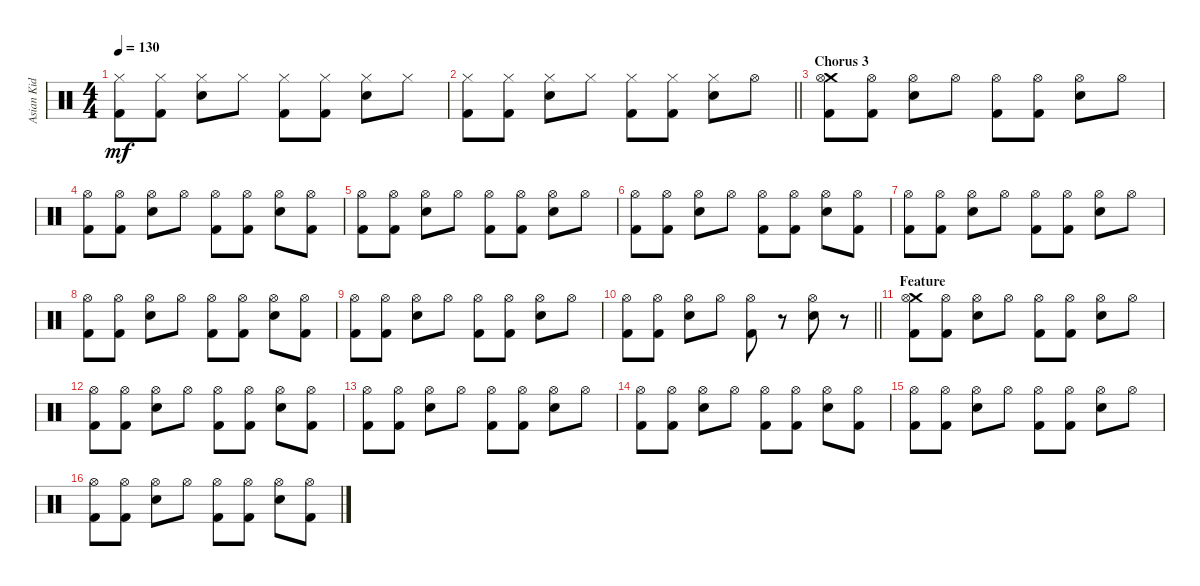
\track ("Asian Kid" "Asian Kid") {instrument percussion}
\staff {score}
\articulation defaults
\ts (4 4)
\tempo 130
\clef neutral
\ks c
("Hi-Hat (closed)" "Kick (hit) 2").8{dy mf} ("Hi-Hat (closed)" "Kick (hit) 2").8 ("Hi-Hat (closed)" "Electric Snare (hit)").8 "Hi-Hat (closed)".8 ("Hi-Hat (closed)" "Kick (hit) 2").8 ("Hi-Hat (closed)" "Kick (hit) 2").8 ("Hi-Hat (closed)" "Electric Snare (hit)").8 "Hi-Hat (closed)".8 |
\barLineRight lightlight
("Hi-Hat (closed)" "Kick (hit) 2").8 ("Hi-Hat (closed)" "Kick (hit) 2").8 ("Hi-Hat (closed)" "Electric Snare (hit)").8 "Hi-Hat (closed)".8 ("Hi-Hat (closed)" "Kick (hit) 2").8 ("Hi-Hat (closed)" "Kick (hit) 2").8 ("Hi-Hat (closed)" "Electric Snare (hit)").8 "Hi-Hat (open)".8 |
\section ("" "Chorus 3")
("Crash medium (hit)" "Hi-Hat (open)" "Kick (hit) 2").8 ("Hi-Hat (open)" "Kick (hit) 2").8 ("Hi-Hat (open)" "Electric Snare (hit)").8 "Hi-Hat (open)".8 ("Hi-Hat (open)" "Kick (hit) 2").8 ("Hi-Hat (open)" "Kick (hit) 2").8 ("Hi-Hat (open)" "Electric Snare (hit)").8 "Hi-Hat (open)".8 |
("Hi-Hat (open)" "Kick (hit) 2").8 ("Hi-Hat (open)" "Kick (hit) 2").8 ("Hi-Hat (open)" "Electric Snare (hit)").8 "Hi-Hat (open)".8 ("Hi-Hat (open)" "Kick (hit) 2").8 ("Hi-Hat (open)" "Kick (hit) 2").8 ("Hi-Hat (open)" "Electric Snare (hit)").8 ("Hi-Hat (open)" "Kick (hit) 2").8 |
("Hi-Hat (open)" "Kick (hit) 2").8 ("Hi-Hat (open)" "Kick (hit) 2").8 ("Hi-Hat (open)" "Electric Snare (hit)").8 "Hi-Hat (open)".8 ("Hi-Hat (open)" "Kick (hit) 2").8 ("Hi-Hat (open)" "Kick (hit) 2").8 ("Hi-Hat (open)" "Electric Snare (hit)").8 "Hi-Hat (open)".8 |
("Hi-Hat (open)" "Kick (hit) 2").8 ("Hi-Hat (open)" "Kick (hit) 2").8 ("Hi-Hat (open)" "Electric Snare (hit)").8 "Hi-Hat (open)".8 ("Hi-Hat (open)" "Kick (hit) 2").8 ("Hi-Hat (open)" "Kick (hit) 2").8 ("Hi-Hat (open)" "Electric Snare (hit)").8 ("Hi-Hat (open)" "Kick (hit) 2").8 |
("Hi-Hat (open)" "Kick (hit) 2").8 ("Hi-Hat (open)" "Kick (hit) 2").8 ("Hi-Hat (open)" "Electric Snare (hit)").8 "Hi-Hat (open)".8 ("Hi-Hat (open)" "Kick (hit) 2").8 ("Hi-Hat (open)" "Kick (hit) 2").8 ("Hi-Hat (open)" "Electric Snare (hit)").8 "Hi-Hat (open)".8 |
("Hi-Hat (open)" "Kick (hit) 2").8 ("Hi-Hat (open)" "Kick (hit) 2").8 ("Hi-Hat (open)" "Electric Snare (hit)").8 "Hi-Hat (open)".8 ("Hi-Hat (open)" "Kick (hit) 2").8 ("Hi-Hat (open)" "Kick (hit) 2").8 ("Hi-Hat (open)" "Electric Snare (hit)").8 ("Hi-Hat (open)" "Kick (hit) 2").8 |
("Hi-Hat (open)" "Kick (hit) 2").8 ("Hi-Hat (open)" "Kick (hit) 2").8 ("Hi-Hat (open)" "Electric Snare (hit)").8 "Hi-Hat (open)".8 ("Hi-Hat (open)" "Kick (hit) 2").8 ("Hi-Hat (open)" "Kick (hit) 2").8 ("Hi-Hat (open)" "Electric Snare (hit)").8 "Hi-Hat (open)".8 |
\barLineRight lightlight
("Hi-Hat (open)" "Kick (hit) 2").8 ("Hi-Hat (open)" "Kick (hit) 2").8 ("Hi-Hat (open)" "Electric Snare (hit)").8 "Hi-Hat (open)".8 ("Hi-Hat (open)" "Kick (hit) 2").8 r.8 ("Hi-Hat (open)" "Electric Snare (hit)").8 r.8 |
\section ("" "Feature")
("Crash medium (hit)" "Hi-Hat (open)" "Kick (hit) 2").8 ("Hi-Hat (open)" "Kick (hit) 2").8 ("Hi-Hat (open)" "Electric Snare (hit)").8 "Hi-Hat (open)".8 ("Hi-Hat (open)" "Kick (hit) 2").8 ("Hi-Hat (open)" "Kick (hit) 2").8 ("Hi-Hat (open)" "Electric Snare (hit)").8 "Hi-Hat (open)".8 |
("Hi-Hat (open)" "Kick (hit) 2").8 ("Hi-Hat (open)" "Kick (hit) 2").8 ("Hi-Hat (open)" "Electric Snare (hit)").8 "Hi-Hat (open)".8 ("Hi-Hat (open)" "Kick (hit) 2").8 ("Hi-Hat (open)" "Kick (hit) 2").8 ("Hi-Hat (open)" "Electric Snare (hit)").8 ("Hi-Hat (open)" "Kick (hit) 2").8 |
("Hi-Hat (open)" "Kick (hit) 2").8 ("Hi-Hat (open)" "Kick (hit) 2").8 ("Hi-Hat (open)" "Electric Snare (hit)").8 "Hi-Hat (open)".8 ("Hi-Hat (open)" "Kick (hit) 2").8 ("Hi-Hat (open)" "Kick (hit) 2").8 ("Hi-Hat (open)" "Electric Snare (hit)").8 "Hi-Hat (open)".8 |
("Hi-Hat (open)" "Kick (hit) 2").8 ("Hi-Hat (open)" "Kick (hit) 2").8 ("Hi-Hat (open)" "Electric Snare (hit)").8 "Hi-Hat (open)".8 ("Hi-Hat (open)" "Kick (hit) 2").8 ("Hi-Hat (open)" "Kick (hit) 2").8 ("Hi-Hat (open)" "Electric Snare (hit)").8 ("Hi-Hat (open)" "Kick (hit) 2").8 |
("Hi-Hat (open)" "Kick (hit) 2").8 ("Hi-Hat (open)" "Kick (hit) 2").8 ("Hi-Hat (open)" "Electric Snare (hit)").8 "Hi-Hat (open)".8 ("Hi-Hat (open)" "Kick (hit) 2").8 ("Hi-Hat (open)" "Kick (hit) 2").8 ("Hi-Hat (open)" "Electric Snare (hit)").8 "Hi-Hat (open)".8 |
("Hi-Hat (open)" "Kick (hit) 2").8 ("Hi-Hat (open)" "Kick (hit) 2").8 ("Hi-Hat (open)" "Electric Snare (hit)").8 "Hi-Hat (open)".8 ("Hi-Hat (open)" "Kick (hit) 2").8 ("Hi-Hat (open)" "Kick (hit) 2").8 ("Hi-Hat (open)" "Electric Snare (hit)").8 ("Hi-Hat (open)" "Kick (hit) 2").8
